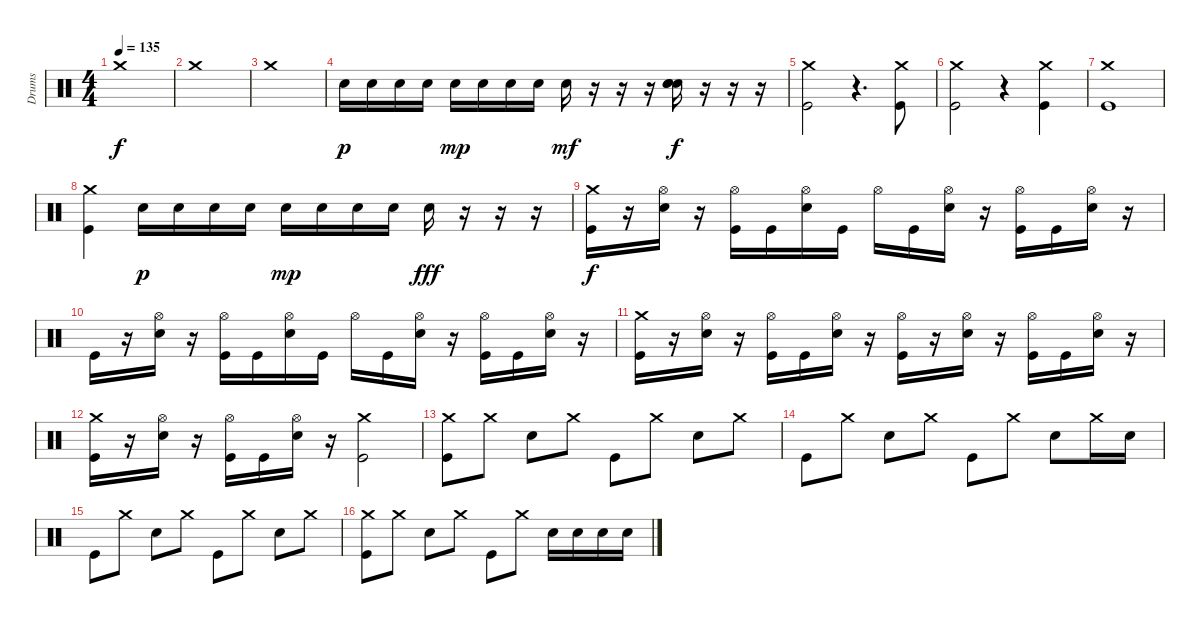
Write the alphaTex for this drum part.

\track ("Drums" "Drums") {instrument percussion}
\staff {score}
\articulation defaults
\ts (4 4)
\tempo 135
\clef neutral
\ks c "Crash medium (hit)".1{dy f}
|
"Crash medium (hit)".1 |
"Crash medium (hit)".1 |
"Electric Snare (hit)".16{dy p} "Electric Snare (hit)".16 "Electric Snare (hit)".16 "Electric Snare (hit)".16 "Electric Snare (hit)".16{dy mp} "Electric Snare (hit)".16 "Electric Snare (hit)".16 "Electric Snare (hit)".16 "Electric Snare (hit)".16{dy mf} r.16 r.16 r.16 ("Hand Clap (hit)" "Hand Clap (hit)" "Hand Clap (hit)").16{dy f} r.16 r.16 r.16 |
("Crash medium (hit)" "Kick (hit)").2 r.4{d} ("Crash medium (hit)" "Kick (hit)").8 |
("Crash medium (hit)" "Kick (hit)").2 r.4 ("Crash medium (hit)" "Kick (hit)").4 |
("Crash medium (hit)" "Kick (hit)").1 |
("Crash medium (hit)" "Kick (hit)").4 "Electric Snare (hit)".16{dy p} "Electric Snare (hit)".16 "Electric Snare (hit)".16 "Electric Snare (hit)".16 "Electric Snare (hit)".16{dy mp} "Electric Snare (hit)".16 "Electric Snare (hit)".16 "Electric Snare (hit)".16 "Electric Snare (hit)".16{dy fff} r.16 r.16 r.16 |
("Crash medium (hit)" "Kick (hit)").16{dy f} r.16 ("Electric Snare (hit)" "Hi-Hat (open)").16 r.16 ("Hi-Hat (open)" "Kick (hit)").16 "Kick (hit)".16 ("Electric Snare (hit)" "Hi-Hat (open)").16 "Kick (hit)".16 "Hi-Hat (open)".16 "Kick (hit)".16 ("Electric Snare (hit)" "Hi-Hat (open)").16 r.16 ("Hi-Hat (open)" "Kick (hit)").16 "Kick (hit)".16 ("Electric Snare (hit)" "Hi-Hat (open)").16 r.16 |
"Kick (hit)".16 r.16 ("Electric Snare (hit)" "Hi-Hat (open)").16 r.16 ("Hi-Hat (open)" "Kick (hit)").16 "Kick (hit)".16 ("Electric Snare (hit)" "Hi-Hat (open)").16 "Kick (hit)".16 "Hi-Hat (open)".16 "Kick (hit)".16 ("Electric Snare (hit)" "Hi-Hat (open)").16 r.16 ("Hi-Hat (open)" "Kick (hit)").16 "Kick (hit)".16 ("Electric Snare (hit)" "Hi-Hat (open)").16 r.16 |
("Crash medium (hit)" "Kick (hit)").16 r.16 ("Electric Snare (hit)" "Hi-Hat (open)").16 r.16 ("Hi-Hat (open)" "Kick (hit)").16 "Kick (hit)".16 ("Electric Snare (hit)" "Hi-Hat (open)").16 r.16 ("Hi-Hat (open)" "Kick (hit)").16 r.16 ("Electric Snare (hit)" "Hi-Hat (open)").16 r.16 ("Hi-Hat (open)" "Kick (hit)").16 "Kick (hit)".16 ("Electric Snare (hit)" "Hi-Hat (open)").16 r.16 |
("Crash medium (hit)" "Kick (hit)").16 r.16 ("Electric Snare (hit)" "Hi-Hat (open)").16 r.16 ("Hi-Hat (open)" "Kick (hit)").16 "Kick (hit)".16 ("Electric Snare (hit)" "Hi-Hat (open)").16 r.16 ("Crash medium (hit)" "Kick (hit)").2 |
("Crash medium (hit)" "Kick (hit)").8 "Crash medium (hit)".8 "Electric Snare (hit)".8 "Crash medium (hit)".8 "Kick (hit)".8 "Crash medium (hit)".8 "Electric Snare (hit)".8 "Crash medium (hit)".8 |
"Kick (hit)".8 "Crash medium (hit)".8 "Electric Snare (hit)".8 "Crash medium (hit)".8 "Kick (hit)".8 "Crash medium (hit)".8 "Electric Snare (hit)".8 "Crash medium (hit)".16 "Electric Snare (hit)".16 |
"Kick (hit)".8 "Crash medium (hit)".8 "Electric Snare (hit)".8 "Crash medium (hit)".8 "Kick (hit)".8 "Crash medium (hit)".8 "Electric Snare (hit)".8 "Crash medium (hit)".8 |
("Crash medium (hit)" "Kick (hit)").8 "Crash medium (hit)".8 "Electric Snare (hit)".8 "Crash medium (hit)".8 "Kick (hit)".8 "Crash medium (hit)".8 "Electric Snare (hit)".16 "Electric Snare (hit)".16 "Electric Snare (hit)".16 "Electric Snare (hit)".16
